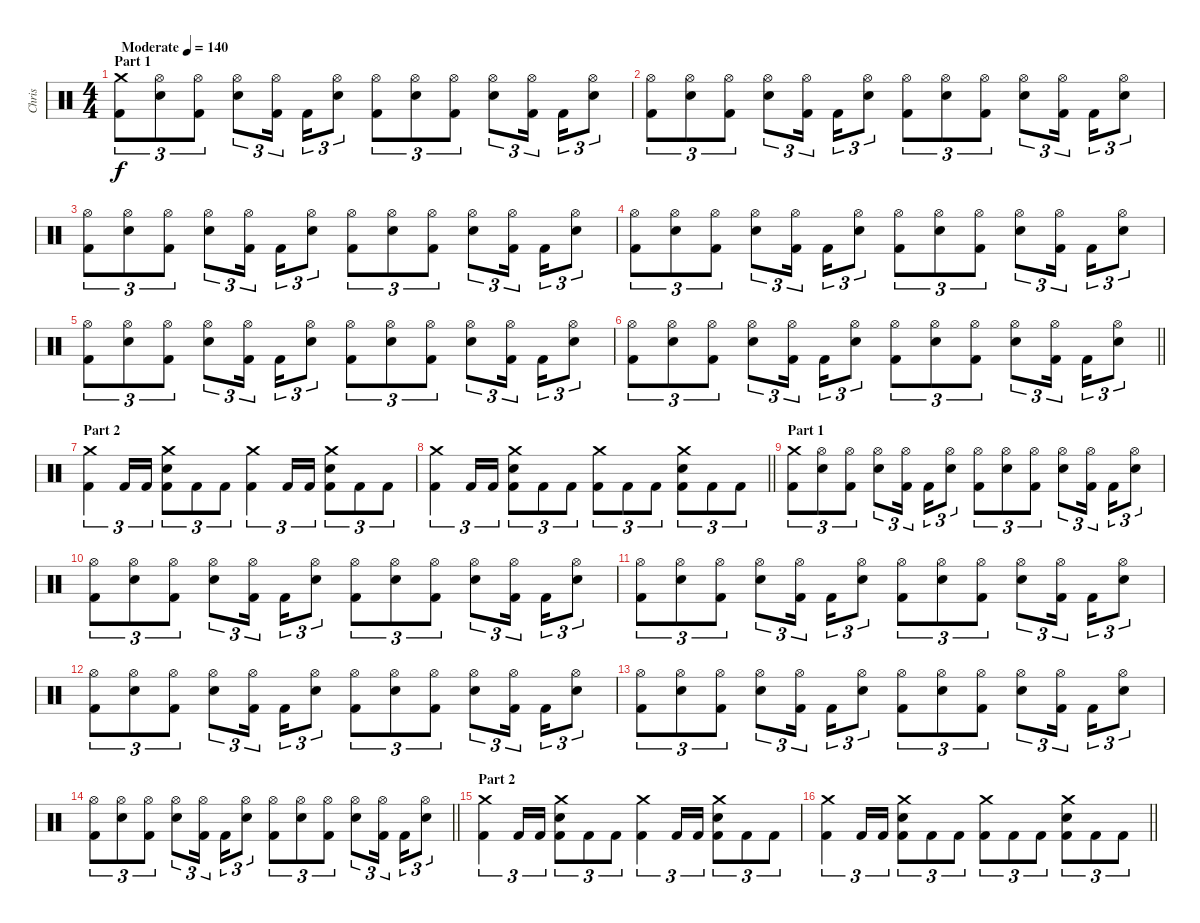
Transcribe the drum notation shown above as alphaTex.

\track ("Chris" "Chris") {instrument percussion}
\staff {score}
\articulation defaults
\ts (4 4)
\section ("" "Part 1")
\tempo (140 "Moderate")
\clef neutral
\ks c
("Crash medium (hit)" "Kick (hit) 2").8{tu (3 2) dy f} ("Snare (hit) 2" "Hi-Hat (open)").8{tu (3 2)} ("Hi-Hat (open)" "Kick (hit) 2").8{tu (3 2)} ("Snare (hit) 2" "Hi-Hat (open)").8{tu (3 2)} ("Hi-Hat (open)" "Kick (hit) 2").16{tu (3 2) beam splitsecondary} "Kick (hit) 2".16{tu (3 2)} ("Snare (hit) 2" "Hi-Hat (open)").8{tu (3 2)} ("Hi-Hat (open)" "Kick (hit) 2").8{tu (3 2)} ("Snare (hit) 2" "Hi-Hat (open)").8{tu (3 2)} ("Hi-Hat (open)" "Kick (hit) 2").8{tu (3 2)} ("Snare (hit) 2" "Hi-Hat (open)").8{tu (3 2)} ("Hi-Hat (open)" "Kick (hit) 2").16{tu (3 2) beam splitsecondary} "Kick (hit) 2".16{tu (3 2)} ("Snare (hit) 2" "Hi-Hat (open)").8{tu (3 2)} |
("Hi-Hat (open)" "Kick (hit) 2").8{tu (3 2)} ("Snare (hit) 2" "Hi-Hat (open)").8{tu (3 2)} ("Hi-Hat (open)" "Kick (hit) 2").8{tu (3 2)} ("Snare (hit) 2" "Hi-Hat (open)").8{tu (3 2)} ("Hi-Hat (open)" "Kick (hit) 2").16{tu (3 2) beam splitsecondary} "Kick (hit) 2".16{tu (3 2)} ("Snare (hit) 2" "Hi-Hat (open)").8{tu (3 2)} ("Hi-Hat (open)" "Kick (hit) 2").8{tu (3 2)} ("Snare (hit) 2" "Hi-Hat (open)").8{tu (3 2)} ("Hi-Hat (open)" "Kick (hit) 2").8{tu (3 2)} ("Snare (hit) 2" "Hi-Hat (open)").8{tu (3 2)} ("Hi-Hat (open)" "Kick (hit) 2").16{tu (3 2) beam splitsecondary} "Kick (hit) 2".16{tu (3 2)} ("Snare (hit) 2" "Hi-Hat (open)").8{tu (3 2)} |
("Hi-Hat (open)" "Kick (hit) 2").8{tu (3 2)} ("Snare (hit) 2" "Hi-Hat (open)").8{tu (3 2)} ("Hi-Hat (open)" "Kick (hit) 2").8{tu (3 2)} ("Snare (hit) 2" "Hi-Hat (open)").8{tu (3 2)} ("Hi-Hat (open)" "Kick (hit) 2").16{tu (3 2) beam splitsecondary} "Kick (hit) 2".16{tu (3 2)} ("Snare (hit) 2" "Hi-Hat (open)").8{tu (3 2)} ("Hi-Hat (open)" "Kick (hit) 2").8{tu (3 2)} ("Snare (hit) 2" "Hi-Hat (open)").8{tu (3 2)} ("Hi-Hat (open)" "Kick (hit) 2").8{tu (3 2)} ("Snare (hit) 2" "Hi-Hat (open)").8{tu (3 2)} ("Hi-Hat (open)" "Kick (hit) 2").16{tu (3 2) beam splitsecondary} "Kick (hit) 2".16{tu (3 2)} ("Snare (hit) 2" "Hi-Hat (open)").8{tu (3 2)} |
("Hi-Hat (open)" "Kick (hit) 2").8{tu (3 2)} ("Snare (hit) 2" "Hi-Hat (open)").8{tu (3 2)} ("Hi-Hat (open)" "Kick (hit) 2").8{tu (3 2)} ("Snare (hit) 2" "Hi-Hat (open)").8{tu (3 2)} ("Hi-Hat (open)" "Kick (hit) 2").16{tu (3 2) beam splitsecondary} "Kick (hit) 2".16{tu (3 2)} ("Snare (hit) 2" "Hi-Hat (open)").8{tu (3 2)} ("Hi-Hat (open)" "Kick (hit) 2").8{tu (3 2)} ("Snare (hit) 2" "Hi-Hat (open)").8{tu (3 2)} ("Hi-Hat (open)" "Kick (hit) 2").8{tu (3 2)} ("Snare (hit) 2" "Hi-Hat (open)").8{tu (3 2)} ("Hi-Hat (open)" "Kick (hit) 2").16{tu (3 2) beam splitsecondary} "Kick (hit) 2".16{tu (3 2)} ("Snare (hit) 2" "Hi-Hat (open)").8{tu (3 2)} |
("Hi-Hat (open)" "Kick (hit) 2").8{tu (3 2)} ("Snare (hit) 2" "Hi-Hat (open)").8{tu (3 2)} ("Hi-Hat (open)" "Kick (hit) 2").8{tu (3 2)} ("Snare (hit) 2" "Hi-Hat (open)").8{tu (3 2)} ("Hi-Hat (open)" "Kick (hit) 2").16{tu (3 2) beam splitsecondary} "Kick (hit) 2".16{tu (3 2)} ("Snare (hit) 2" "Hi-Hat (open)").8{tu (3 2)} ("Hi-Hat (open)" "Kick (hit) 2").8{tu (3 2)} ("Snare (hit) 2" "Hi-Hat (open)").8{tu (3 2)} ("Hi-Hat (open)" "Kick (hit) 2").8{tu (3 2)} ("Snare (hit) 2" "Hi-Hat (open)").8{tu (3 2)} ("Hi-Hat (open)" "Kick (hit) 2").16{tu (3 2) beam splitsecondary} "Kick (hit) 2".16{tu (3 2)} ("Snare (hit) 2" "Hi-Hat (open)").8{tu (3 2)} |
\barLineRight lightlight
("Hi-Hat (open)" "Kick (hit) 2").8{tu (3 2)} ("Snare (hit) 2" "Hi-Hat (open)").8{tu (3 2)} ("Hi-Hat (open)" "Kick (hit) 2").8{tu (3 2)} ("Snare (hit) 2" "Hi-Hat (open)").8{tu (3 2)} ("Hi-Hat (open)" "Kick (hit) 2").16{tu (3 2) beam splitsecondary} "Kick (hit) 2".16{tu (3 2)} ("Snare (hit) 2" "Hi-Hat (open)").8{tu (3 2)} ("Hi-Hat (open)" "Kick (hit) 2").8{tu (3 2)} ("Snare (hit) 2" "Hi-Hat (open)").8{tu (3 2)} ("Hi-Hat (open)" "Kick (hit) 2").8{tu (3 2)} ("Snare (hit) 2" "Hi-Hat (open)").8{tu (3 2)} ("Hi-Hat (open)" "Kick (hit) 2").16{tu (3 2) beam splitsecondary} "Kick (hit) 2".16{tu (3 2)} ("Snare (hit) 2" "Hi-Hat (open)").8{tu (3 2)} |
\section ("" "Part 2")
("Crash medium (hit)" "Kick (hit) 2").4{tu (3 2)} "Kick (hit) 2".16{tu (3 2)} "Kick (hit) 2".16{tu (3 2)} ("Crash medium (hit)" "Snare (hit) 2" "Kick (hit) 2").8{tu (3 2)} "Kick (hit) 2".8{tu (3 2)} "Kick (hit) 2".8{tu (3 2)} ("Crash medium (hit)" "Kick (hit) 2").4{tu (3 2)} "Kick (hit) 2".16{tu (3 2)} "Kick (hit) 2".16{tu (3 2)} ("Crash medium (hit)" "Snare (hit) 2" "Kick (hit) 2").8{tu (3 2)} "Kick (hit) 2".8{tu (3 2)} "Kick (hit) 2".8{tu (3 2)} |
\barLineRight lightlight
("Crash medium (hit)" "Kick (hit) 2").4{tu (3 2)} "Kick (hit) 2".16{tu (3 2)} "Kick (hit) 2".16{tu (3 2)} ("Crash medium (hit)" "Snare (hit) 2" "Kick (hit) 2").8{tu (3 2)} "Kick (hit) 2".8{tu (3 2)} "Kick (hit) 2".8{tu (3 2)} ("Crash medium (hit)" "Kick (hit) 2").8{tu (3 2)} "Kick (hit) 2".8{tu (3 2)} "Kick (hit) 2".8{tu (3 2)} ("Crash medium (hit)" "Snare (hit) 2" "Kick (hit) 2").8{tu (3 2)} "Kick (hit) 2".8{tu (3 2)} "Kick (hit) 2".8{tu (3 2)} |
\section ("" "Part 1")
("Crash medium (hit)" "Kick (hit) 2").8{tu (3 2)} ("Snare (hit) 2" "Hi-Hat (open)").8{tu (3 2)} ("Hi-Hat (open)" "Kick (hit) 2").8{tu (3 2)} ("Snare (hit) 2" "Hi-Hat (open)").8{tu (3 2)} ("Hi-Hat (open)" "Kick (hit) 2").16{tu (3 2) beam splitsecondary} "Kick (hit) 2".16{tu (3 2)} ("Snare (hit) 2" "Hi-Hat (open)").8{tu (3 2)} ("Hi-Hat (open)" "Kick (hit) 2").8{tu (3 2)} ("Snare (hit) 2" "Hi-Hat (open)").8{tu (3 2)} ("Hi-Hat (open)" "Kick (hit) 2").8{tu (3 2)} ("Snare (hit) 2" "Hi-Hat (open)").8{tu (3 2)} ("Hi-Hat (open)" "Kick (hit) 2").16{tu (3 2) beam splitsecondary} "Kick (hit) 2".16{tu (3 2)} ("Snare (hit) 2" "Hi-Hat (open)").8{tu (3 2)} |
("Hi-Hat (open)" "Kick (hit) 2").8{tu (3 2)} ("Snare (hit) 2" "Hi-Hat (open)").8{tu (3 2)} ("Hi-Hat (open)" "Kick (hit) 2").8{tu (3 2)} ("Snare (hit) 2" "Hi-Hat (open)").8{tu (3 2)} ("Hi-Hat (open)" "Kick (hit) 2").16{tu (3 2) beam splitsecondary} "Kick (hit) 2".16{tu (3 2)} ("Snare (hit) 2" "Hi-Hat (open)").8{tu (3 2)} ("Hi-Hat (open)" "Kick (hit) 2").8{tu (3 2)} ("Snare (hit) 2" "Hi-Hat (open)").8{tu (3 2)} ("Hi-Hat (open)" "Kick (hit) 2").8{tu (3 2)} ("Snare (hit) 2" "Hi-Hat (open)").8{tu (3 2)} ("Hi-Hat (open)" "Kick (hit) 2").16{tu (3 2) beam splitsecondary} "Kick (hit) 2".16{tu (3 2)} ("Snare (hit) 2" "Hi-Hat (open)").8{tu (3 2)} |
("Hi-Hat (open)" "Kick (hit) 2").8{tu (3 2)} ("Snare (hit) 2" "Hi-Hat (open)").8{tu (3 2)} ("Hi-Hat (open)" "Kick (hit) 2").8{tu (3 2)} ("Snare (hit) 2" "Hi-Hat (open)").8{tu (3 2)} ("Hi-Hat (open)" "Kick (hit) 2").16{tu (3 2) beam splitsecondary} "Kick (hit) 2".16{tu (3 2)} ("Snare (hit) 2" "Hi-Hat (open)").8{tu (3 2)} ("Hi-Hat (open)" "Kick (hit) 2").8{tu (3 2)} ("Snare (hit) 2" "Hi-Hat (open)").8{tu (3 2)} ("Hi-Hat (open)" "Kick (hit) 2").8{tu (3 2)} ("Snare (hit) 2" "Hi-Hat (open)").8{tu (3 2)} ("Hi-Hat (open)" "Kick (hit) 2").16{tu (3 2) beam splitsecondary} "Kick (hit) 2".16{tu (3 2)} ("Snare (hit) 2" "Hi-Hat (open)").8{tu (3 2)} |
("Hi-Hat (open)" "Kick (hit) 2").8{tu (3 2)} ("Snare (hit) 2" "Hi-Hat (open)").8{tu (3 2)} ("Hi-Hat (open)" "Kick (hit) 2").8{tu (3 2)} ("Snare (hit) 2" "Hi-Hat (open)").8{tu (3 2)} ("Hi-Hat (open)" "Kick (hit) 2").16{tu (3 2) beam splitsecondary} "Kick (hit) 2".16{tu (3 2)} ("Snare (hit) 2" "Hi-Hat (open)").8{tu (3 2)} ("Hi-Hat (open)" "Kick (hit) 2").8{tu (3 2)} ("Snare (hit) 2" "Hi-Hat (open)").8{tu (3 2)} ("Hi-Hat (open)" "Kick (hit) 2").8{tu (3 2)} ("Snare (hit) 2" "Hi-Hat (open)").8{tu (3 2)} ("Hi-Hat (open)" "Kick (hit) 2").16{tu (3 2) beam splitsecondary} "Kick (hit) 2".16{tu (3 2)} ("Snare (hit) 2" "Hi-Hat (open)").8{tu (3 2)} |
("Hi-Hat (open)" "Kick (hit) 2").8{tu (3 2)} ("Snare (hit) 2" "Hi-Hat (open)").8{tu (3 2)} ("Hi-Hat (open)" "Kick (hit) 2").8{tu (3 2)} ("Snare (hit) 2" "Hi-Hat (open)").8{tu (3 2)} ("Hi-Hat (open)" "Kick (hit) 2").16{tu (3 2) beam splitsecondary} "Kick (hit) 2".16{tu (3 2)} ("Snare (hit) 2" "Hi-Hat (open)").8{tu (3 2)} ("Hi-Hat (open)" "Kick (hit) 2").8{tu (3 2)} ("Snare (hit) 2" "Hi-Hat (open)").8{tu (3 2)} ("Hi-Hat (open)" "Kick (hit) 2").8{tu (3 2)} ("Snare (hit) 2" "Hi-Hat (open)").8{tu (3 2)} ("Hi-Hat (open)" "Kick (hit) 2").16{tu (3 2) beam splitsecondary} "Kick (hit) 2".16{tu (3 2)} ("Snare (hit) 2" "Hi-Hat (open)").8{tu (3 2)} |
\barLineRight lightlight
("Hi-Hat (open)" "Kick (hit) 2").8{tu (3 2)} ("Snare (hit) 2" "Hi-Hat (open)").8{tu (3 2)} ("Hi-Hat (open)" "Kick (hit) 2").8{tu (3 2)} ("Snare (hit) 2" "Hi-Hat (open)").8{tu (3 2)} ("Hi-Hat (open)" "Kick (hit) 2").16{tu (3 2) beam splitsecondary} "Kick (hit) 2".16{tu (3 2)} ("Snare (hit) 2" "Hi-Hat (open)").8{tu (3 2)} ("Hi-Hat (open)" "Kick (hit) 2").8{tu (3 2)} ("Snare (hit) 2" "Hi-Hat (open)").8{tu (3 2)} ("Hi-Hat (open)" "Kick (hit) 2").8{tu (3 2)} ("Snare (hit) 2" "Hi-Hat (open)").8{tu (3 2)} ("Hi-Hat (open)" "Kick (hit) 2").16{tu (3 2) beam splitsecondary} "Kick (hit) 2".16{tu (3 2)} ("Snare (hit) 2" "Hi-Hat (open)").8{tu (3 2)} |
\section ("" "Part 2")
("Crash medium (hit)" "Kick (hit) 2").4{tu (3 2)} "Kick (hit) 2".16{tu (3 2)} "Kick (hit) 2".16{tu (3 2)} ("Crash medium (hit)" "Snare (hit) 2" "Kick (hit) 2").8{tu (3 2)} "Kick (hit) 2".8{tu (3 2)} "Kick (hit) 2".8{tu (3 2)} ("Crash medium (hit)" "Kick (hit) 2").4{tu (3 2)} "Kick (hit) 2".16{tu (3 2)} "Kick (hit) 2".16{tu (3 2)} ("Crash medium (hit)" "Snare (hit) 2" "Kick (hit) 2").8{tu (3 2)} "Kick (hit) 2".8{tu (3 2)} "Kick (hit) 2".8{tu (3 2)} |
\barLineRight lightlight
("Crash medium (hit)" "Kick (hit) 2").4{tu (3 2)} "Kick (hit) 2".16{tu (3 2)} "Kick (hit) 2".16{tu (3 2)} ("Crash medium (hit)" "Snare (hit) 2" "Kick (hit) 2").8{tu (3 2)} "Kick (hit) 2".8{tu (3 2)} "Kick (hit) 2".8{tu (3 2)} ("Crash medium (hit)" "Kick (hit) 2").8{tu (3 2)} "Kick (hit) 2".8{tu (3 2)} "Kick (hit) 2".8{tu (3 2)} ("Crash medium (hit)" "Snare (hit) 2" "Kick (hit) 2").8{tu (3 2)} "Kick (hit) 2".8{tu (3 2)} "Kick (hit) 2".8{tu (3 2)}
